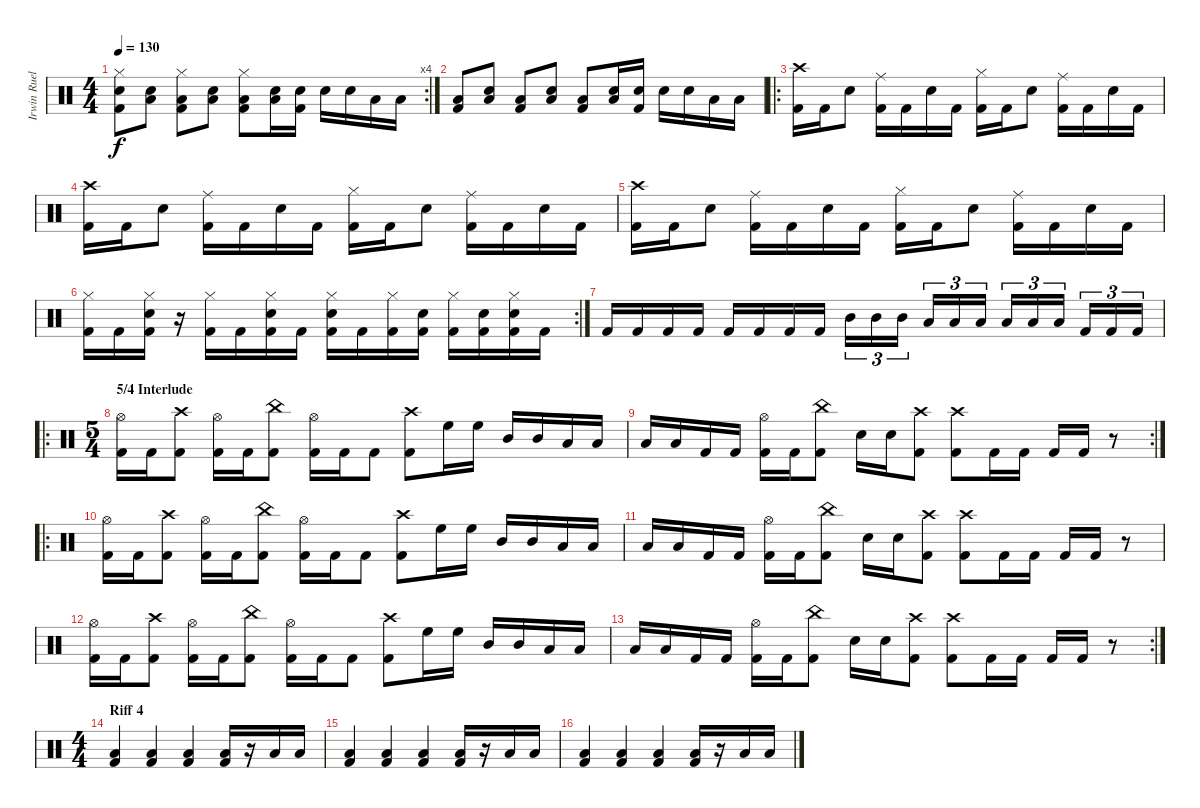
\track ("Irwin Ruelas (Drums)" "Irwin Ruel") {instrument percussion}
\staff {score}
\articulation defaults
\rc 4
\ts (4 4)
\tempo 130
\clef neutral
\ks c
("Hi-Hat (closed)" "Snare (hit) 2" "Kick (hit) 2").8{dy f} ("Low Floor Tom (hit)" "Snare (hit) 2").8 ("Hi-Hat (closed)" "Low Floor Tom (hit)" "Kick (hit) 2").8 ("Low Floor Tom (hit)" "Snare (hit) 2").8 ("Hi-Hat (closed)" "Low Floor Tom (hit)" "Kick (hit) 2").8 ("Low Floor Tom (hit)" "Snare (hit) 2").16 ("Snare (hit) 2" "Kick (hit) 2").16 "Snare (hit) 2".16 "Snare (hit) 2".16 "Low Tom (hit)".16 "Low Tom (hit)".16 |
("Low Floor Tom (hit)" "Kick (hit) 2").8 ("Low Floor Tom (hit)" "Snare (hit) 2").8 ("Low Floor Tom (hit)" "Kick (hit) 2").8 ("Low Floor Tom (hit)" "Snare (hit) 2").8 ("Low Floor Tom (hit)" "Kick (hit) 2").8 ("Low Floor Tom (hit)" "Snare (hit) 2").16 ("Snare (hit) 2" "Kick (hit) 2").16 "Snare (hit) 2".16 "Snare (hit) 2".16 "Low Tom (hit)".16 "Low Tom (hit)".16 |
\ro
("Crash high (hit)" "Kick (hit) 2").16 "Kick (hit) 2".16 "Snare (hit) 2".8 ("Ride (middle)" "Kick (hit) 2").16 "Kick (hit) 2".16 "Snare (hit) 2".16 "Kick (hit) 2".16 ("Hi-Hat (closed)" "Kick (hit) 2").16 "Kick (hit) 2".16 "Snare (hit) 2".8 ("Ride (middle)" "Kick (hit) 2").16 "Kick (hit) 2".16 "Snare (hit) 2".16 "Kick (hit) 2".16 |
("Crash high (hit)" "Kick (hit) 2").16 "Kick (hit) 2".16 "Snare (hit) 2".8 ("Ride (middle)" "Kick (hit) 2").16 "Kick (hit) 2".16 "Snare (hit) 2".16 "Kick (hit) 2".16 ("Hi-Hat (closed)" "Kick (hit) 2").16 "Kick (hit) 2".16 "Snare (hit) 2".8 ("Ride (middle)" "Kick (hit) 2").16 "Kick (hit) 2".16 "Snare (hit) 2".16 "Kick (hit) 2".16 |
("Crash high (hit)" "Kick (hit) 2").16 "Kick (hit) 2".16 "Snare (hit) 2".8 ("Ride (middle)" "Kick (hit) 2").16 "Kick (hit) 2".16 "Snare (hit) 2".16 "Kick (hit) 2".16 ("Hi-Hat (closed)" "Kick (hit) 2").16 "Kick (hit) 2".16 "Snare (hit) 2".8 ("Ride (middle)" "Kick (hit) 2").16 "Kick (hit) 2".16 "Snare (hit) 2".16 "Kick (hit) 2".16 |
\rc 2
("Hi-Hat (closed)" "Kick (hit) 2").16 "Kick (hit) 2".16 ("Hi-Hat (closed)" "Snare (hit) 2" "Kick (hit) 2").16 r.16 ("Hi-Hat (closed)" "Kick (hit) 2").16 "Kick (hit) 2".16 ("Hi-Hat (closed)" "Snare (hit) 2" "Kick (hit) 2").16 "Kick (hit) 2".16 ("Hi-Hat (closed)" "Snare (hit) 2" "Kick (hit) 2").16 "Kick (hit) 2".16 ("Hi-Hat (closed)" "Kick (hit) 2").16 ("Snare (hit) 2" "Kick (hit) 2").16 ("Hi-Hat (closed)" "Kick (hit) 2").16 ("Snare (hit) 2" "Kick (hit) 2").16 ("Hi-Hat (closed)" "Snare (hit) 2" "Kick (hit) 2").16 "Kick (hit) 2".16 |
"Kick (hit) 2".16 "Kick (hit) 2".16 "Kick (hit) 2".16 "Kick (hit) 2".16 "Kick (hit) 2".16 "Kick (hit) 2".16 "Kick (hit) 2".16 "Kick (hit) 2".16 "Mid Tom (hit)".16{tu (3 2)} "Mid Tom (hit)".16{tu (3 2)} "Mid Tom (hit)".16{tu (3 2)} "Low Tom (hit)".16{tu (3 2)} "Low Tom (hit)".16{tu (3 2)} "Low Tom (hit)".16{tu (3 2)} "Low Floor Tom (hit)".16{tu (3 2)} "Low Floor Tom (hit)".16{tu (3 2)} "Low Floor Tom (hit)".16{tu (3 2)} "Kick (hit) 2".16{tu (3 2)} "Kick (hit) 2".16{tu (3 2)} "Kick (hit) 2".16{tu (3 2)} |
\ro
\ts (5 4)
\section ("" "5/4 Interlude")
("Hi-Hat (open)" "Kick (hit) 2").16 "Kick (hit) 2".16 ("Kick (hit) 2" "Crash high (hit)").8 ("Hi-Hat (open)" "Kick (hit) 2").16 "Kick (hit) 2".16 ("China (hit)" "Kick (hit) 2").8 ("Hi-Hat (open)" "Kick (hit) 2").16 "Kick (hit) 2".16 "Kick (hit) 2".8 ("Crash high (hit)" "Kick (hit) 2").8 "High Floor Tom (hit)".16 "High Floor Tom (hit)".16 "Mid Tom (hit)".16 "Mid Tom (hit)".16 "Low Tom (hit)".16 "Low Tom (hit)".16 |
\rc 2 "Low Floor Tom (hit)".16 "Low Floor Tom (hit)".16 "Kick (hit) 2".16 "Kick (hit) 2".16
("Hi-Hat (open)" "Kick (hit) 2").16 "Kick (hit) 2".16 ("Kick (hit) 2" "China (hit)").8 "Snare (hit) 2".16 "Snare (hit) 2".16 ("Crash high (hit)" "Kick (hit) 2").8 ("Crash high (hit)" "Kick (hit) 2").8 "Kick (hit) 2".16 "Kick (hit) 2".16 "Kick (hit) 2".16 "Kick (hit) 2".16 r.8 |
\ro
("Hi-Hat (open)" "Kick (hit) 2").16 "Kick (hit) 2".16 ("Kick (hit) 2" "Crash high (hit)").8 ("Hi-Hat (open)" "Kick (hit) 2").16 "Kick (hit) 2".16 ("China (hit)" "Kick (hit) 2").8 ("Hi-Hat (open)" "Kick (hit) 2").16 "Kick (hit) 2".16 "Kick (hit) 2".8 ("Crash high (hit)" "Kick (hit) 2").8 "High Floor Tom (hit)".16 "High Floor Tom (hit)".16 "Mid Tom (hit)".16 "Mid Tom (hit)".16 "Low Tom (hit)".16 "Low Tom (hit)".16 |
"Low Floor Tom (hit)".16 "Low Floor Tom (hit)".16 "Kick (hit) 2".16 "Kick (hit) 2".16 ("Hi-Hat (open)" "Kick (hit) 2").16 "Kick (hit) 2".16 ("Kick (hit) 2" "China (hit)").8 "Snare (hit) 2".16 "Snare (hit) 2".16 ("Crash high (hit)" "Kick (hit) 2").8 ("Crash high (hit)" "Kick (hit) 2").8 "Kick (hit) 2".16 "Kick (hit) 2".16 "Kick (hit) 2".16 "Kick (hit) 2".16 r.8 |
("Hi-Hat (open)" "Kick (hit) 2").16 "Kick (hit) 2".16 ("Kick (hit) 2" "Crash high (hit)").8 ("Hi-Hat (open)" "Kick (hit) 2").16 "Kick (hit) 2".16 ("China (hit)" "Kick (hit) 2").8 ("Hi-Hat (open)" "Kick (hit) 2").16 "Kick (hit) 2".16 "Kick (hit) 2".8 ("Crash high (hit)" "Kick (hit) 2").8 "High Floor Tom (hit)".16 "High Floor Tom (hit)".16 "Mid Tom (hit)".16 "Mid Tom (hit)".16 "Low Tom (hit)".16 "Low Tom (hit)".16 |
\rc 2 "Low Floor Tom (hit)".16 "Low Floor Tom (hit)".16 "Kick (hit) 2".16 "Kick (hit) 2".16
("Hi-Hat (open)" "Kick (hit) 2").16 "Kick (hit) 2".16 ("Kick (hit) 2" "China (hit)").8 "Snare (hit) 2".16 "Snare (hit) 2".16 ("Crash high (hit)" "Kick (hit) 2").8 ("Crash high (hit)" "Kick (hit) 2").8 "Kick (hit) 2".16 "Kick (hit) 2".16 "Kick (hit) 2".16 "Kick (hit) 2".16 r.8 |
\ts (4 4)
\section ("" "Riff 4")
("Low Floor Tom (hit)" "Kick (hit) 2").4 ("Low Floor Tom (hit)" "Kick (hit) 2").4 ("Low Floor Tom (hit)" "Kick (hit) 2").4 ("Low Floor Tom (hit)" "Kick (hit) 2").16 r.16 "Low Tom (hit)".16 "Low Tom (hit)".16 |
("Low Floor Tom (hit)" "Kick (hit) 2").4 ("Low Floor Tom (hit)" "Kick (hit) 2").4 ("Low Floor Tom (hit)" "Kick (hit) 2").4 ("Low Floor Tom (hit)" "Kick (hit) 2").16 r.16 "Low Tom (hit)".16 "Low Tom (hit)".16 |
("Low Floor Tom (hit)" "Kick (hit) 2").4 ("Low Floor Tom (hit)" "Kick (hit) 2").4 ("Low Floor Tom (hit)" "Kick (hit) 2").4 ("Low Floor Tom (hit)" "Kick (hit) 2").16 r.16 "Low Tom (hit)".16 "Low Tom (hit)".16
